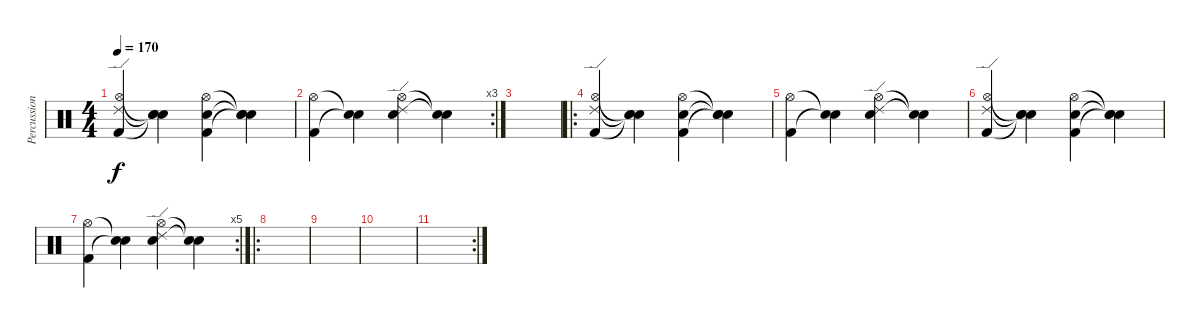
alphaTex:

\track ("Percussion" "Percussion") {instrument percussion}
\staff {score}
\articulation defaults
\ts (4 4)
\tempo 170
\clef neutral
\ks c
("Ride (edge) 2" "Hi-Hat (open)" "Kick (hit) 2").4{dy f} ("Snare (hit)"{t} "Snare (hit)"{t} "Snare (hit)"{t}).4 ("Electric Snare (hit)" "Hi-Hat (open)" "Kick (hit) 2").4 ("Snare (hit)"{t} "Snare (hit)"{t} "Snare (hit)"{t}).4 |
\rc 3
("Hi-Hat (open)" "Kick (hit) 2").4 ("Electric Snare (hit)"{t} "Snare (hit)"{t}).4 ("Hi-Hat (open)" "Ride (edge) 2" "Electric Snare (hit)").4 ("Electric Snare (hit)"{t} "Snare (hit)"{t}).4 |
|
\ro
("Ride (edge) 2" "Hi-Hat (open)" "Kick (hit) 2").4 ("Snare (hit)"{t} "Snare (hit)"{t} "Snare (hit)"{t}).4 ("Electric Snare (hit)" "Hi-Hat (open)" "Kick (hit) 2").4 ("Snare (hit)"{t} "Snare (hit)"{t} "Snare (hit)"{t}).4 |
("Hi-Hat (open)" "Kick (hit) 2").4 ("Electric Snare (hit)"{t} "Snare (hit)"{t}).4 ("Hi-Hat (open)" "Ride (edge) 2" "Electric Snare (hit)").4 ("Electric Snare (hit)"{t} "Snare (hit)"{t}).4 |
("Ride (edge) 2" "Hi-Hat (open)" "Kick (hit) 2").4 ("Snare (hit)"{t} "Snare (hit)"{t} "Snare (hit)"{t}).4 ("Electric Snare (hit)" "Hi-Hat (open)" "Kick (hit) 2").4 ("Snare (hit)"{t} "Snare (hit)"{t} "Snare (hit)"{t}).4 |
\rc 5
("Hi-Hat (open)" "Kick (hit) 2").4 ("Electric Snare (hit)"{t} "Snare (hit)"{t}).4 ("Hi-Hat (open)" "Ride (edge) 2" "Electric Snare (hit)").4 ("Electric Snare (hit)"{t} "Snare (hit)"{t}).4 |
\ro
|
|
|
\rc 2
